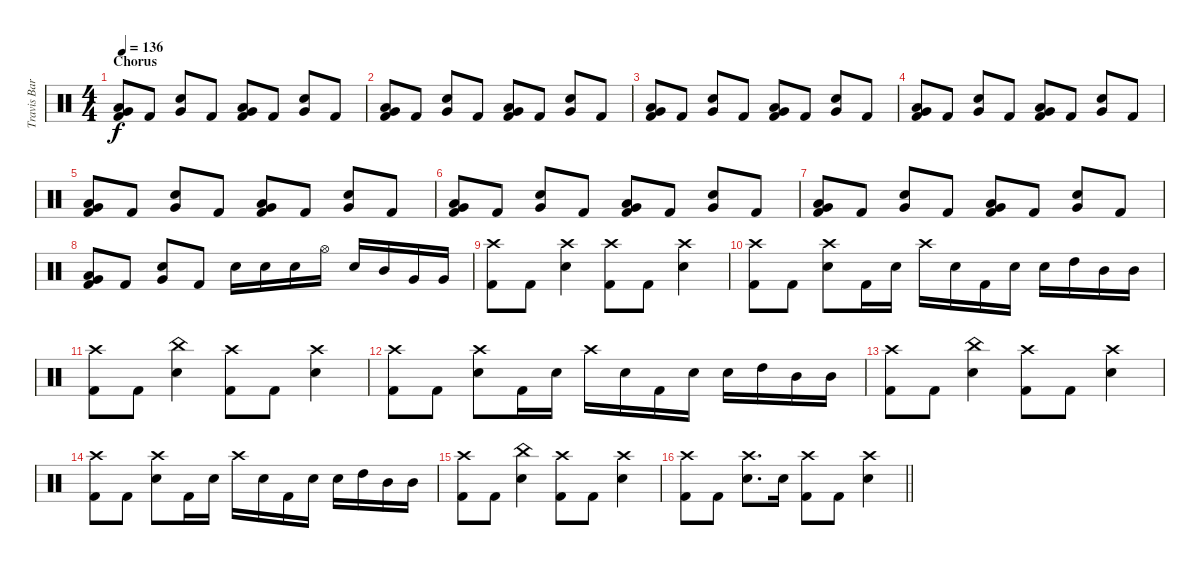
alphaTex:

\track ("Travis Barker - Drums" "Travis Bar") {instrument percussion}
\staff {score}
\articulation defaults
\ts (4 4)
\section ("" "Chorus")
\tempo 136
\clef neutral
\ks c
("Kick (hit) 2" "Very Low Tom (hit)" "Low Floor Tom (hit)").8{dy f} "Kick (hit) 2".8 ("Snare (hit) 2" "Very Low Tom (hit)").8 "Kick (hit) 2".8 ("Kick (hit) 2" "Very Low Tom (hit)" "Low Floor Tom (hit)").8 "Kick (hit) 2".8 ("Snare (hit) 2" "Very Low Tom (hit)").8 "Kick (hit) 2".8 |
("Kick (hit) 2" "Very Low Tom (hit)" "Low Floor Tom (hit)").8 "Kick (hit) 2".8 ("Snare (hit) 2" "Very Low Tom (hit)").8 "Kick (hit) 2".8 ("Kick (hit) 2" "Very Low Tom (hit)" "Low Floor Tom (hit)").8 "Kick (hit) 2".8 ("Snare (hit) 2" "Very Low Tom (hit)").8 "Kick (hit) 2".8 |
("Kick (hit) 2" "Very Low Tom (hit)" "Low Floor Tom (hit)").8 "Kick (hit) 2".8 ("Snare (hit) 2" "Very Low Tom (hit)").8 "Kick (hit) 2".8 ("Kick (hit) 2" "Very Low Tom (hit)" "Low Floor Tom (hit)").8 "Kick (hit) 2".8 ("Snare (hit) 2" "Very Low Tom (hit)").8 "Kick (hit) 2".8 |
("Kick (hit) 2" "Very Low Tom (hit)" "Low Floor Tom (hit)").8 "Kick (hit) 2".8 ("Snare (hit) 2" "Very Low Tom (hit)").8 "Kick (hit) 2".8 ("Kick (hit) 2" "Very Low Tom (hit)" "Low Floor Tom (hit)").8 "Kick (hit) 2".8 ("Snare (hit) 2" "Very Low Tom (hit)").8 "Kick (hit) 2".8 |
("Kick (hit) 2" "Very Low Tom (hit)" "Low Floor Tom (hit)").8 "Kick (hit) 2".8 ("Snare (hit) 2" "Very Low Tom (hit)").8 "Kick (hit) 2".8 ("Kick (hit) 2" "Very Low Tom (hit)" "Low Floor Tom (hit)").8 "Kick (hit) 2".8 ("Snare (hit) 2" "Very Low Tom (hit)").8 "Kick (hit) 2".8 |
("Kick (hit) 2" "Very Low Tom (hit)" "Low Floor Tom (hit)").8 "Kick (hit) 2".8 ("Snare (hit) 2" "Very Low Tom (hit)").8 "Kick (hit) 2".8 ("Kick (hit) 2" "Very Low Tom (hit)" "Low Floor Tom (hit)").8 "Kick (hit) 2".8 ("Snare (hit) 2" "Very Low Tom (hit)").8 "Kick (hit) 2".8 |
("Kick (hit) 2" "Very Low Tom (hit)" "Low Floor Tom (hit)").8 "Kick (hit) 2".8 ("Snare (hit) 2" "Very Low Tom (hit)").8 "Kick (hit) 2".8 ("Kick (hit) 2" "Very Low Tom (hit)" "Low Floor Tom (hit)").8 "Kick (hit) 2".8 ("Snare (hit) 2" "Very Low Tom (hit)").8 "Kick (hit) 2".8 |
("Kick (hit) 2" "Very Low Tom (hit)" "Low Floor Tom (hit)").8 "Kick (hit) 2".8 ("Snare (hit) 2" "Very Low Tom (hit)").8 "Kick (hit) 2".8 "Snare (hit) 2".16 "Snare (hit) 2".16 "Snare (hit) 2".16 "Hi-Hat (open)".16 "Snare (hit) 2".16 "Mid Tom (hit)".16 "Very Low Tom (hit)".16 "Very Low Tom (hit)".16 |
("Crash high (hit)" "Kick (hit) 2").8 "Kick (hit) 2".8 ("Crash high (hit)" "Snare (hit) 2").4 ("Crash high (hit)" "Kick (hit) 2").8 "Kick (hit) 2".8 ("Crash high (hit)" "Snare (hit) 2").4 |
("Crash high (hit)" "Kick (hit) 2").8 "Kick (hit) 2".8 ("Crash high (hit)" "Snare (hit) 2").8 "Kick (hit) 2".16 "Snare (hit) 2".16 "Crash high (hit)".16 "Snare (hit) 2".16 "Kick (hit) 2".16 "Snare (hit) 2".16 "Snare (hit) 2".16 "High Tom (hit)".16 "Mid Tom (hit)".16 "Mid Tom (hit)".16 |
("Crash high (hit)" "Kick (hit) 2").8 "Kick (hit) 2".8 ("China (hit)" "Snare (hit) 2").4 ("Crash high (hit)" "Kick (hit) 2").8 "Kick (hit) 2".8 ("Crash high (hit)" "Snare (hit) 2").4 |
("Crash high (hit)" "Kick (hit) 2").8 "Kick (hit) 2".8 ("Crash high (hit)" "Snare (hit) 2").8 "Kick (hit) 2".16 "Snare (hit) 2".16 "Crash high (hit)".16 "Snare (hit) 2".16 "Kick (hit) 2".16 "Snare (hit) 2".16 "Snare (hit) 2".16 "High Tom (hit)".16 "Mid Tom (hit)".16 "Mid Tom (hit)".16 |
("Crash high (hit)" "Kick (hit) 2").8 "Kick (hit) 2".8 ("China (hit)" "Snare (hit) 2").4 ("Crash high (hit)" "Kick (hit) 2").8 "Kick (hit) 2".8 ("Crash high (hit)" "Snare (hit) 2").4 |
("Crash high (hit)" "Kick (hit) 2").8 "Kick (hit) 2".8 ("Crash high (hit)" "Snare (hit) 2").8 "Kick (hit) 2".16 "Snare (hit) 2".16 "Crash high (hit)".16 "Snare (hit) 2".16 "Kick (hit) 2".16 "Snare (hit) 2".16 "Snare (hit) 2".16 "High Tom (hit)".16 "Mid Tom (hit)".16 "Mid Tom (hit)".16 |
("Crash high (hit)" "Kick (hit) 2").8 "Kick (hit) 2".8 ("China (hit)" "Snare (hit) 2").4 ("Crash high (hit)" "Kick (hit) 2").8 "Kick (hit) 2".8 ("Crash high (hit)" "Snare (hit) 2").4 |
\barLineRight lightlight
("Crash high (hit)" "Kick (hit) 2").8 "Kick (hit) 2".8 ("Crash high (hit)" "Snare (hit) 2").8{d} "Snare (hit) 2".16 ("Crash high (hit)" "Kick (hit) 2").8 "Kick (hit) 2".8 ("Crash high (hit)" "Snare (hit) 2").4
